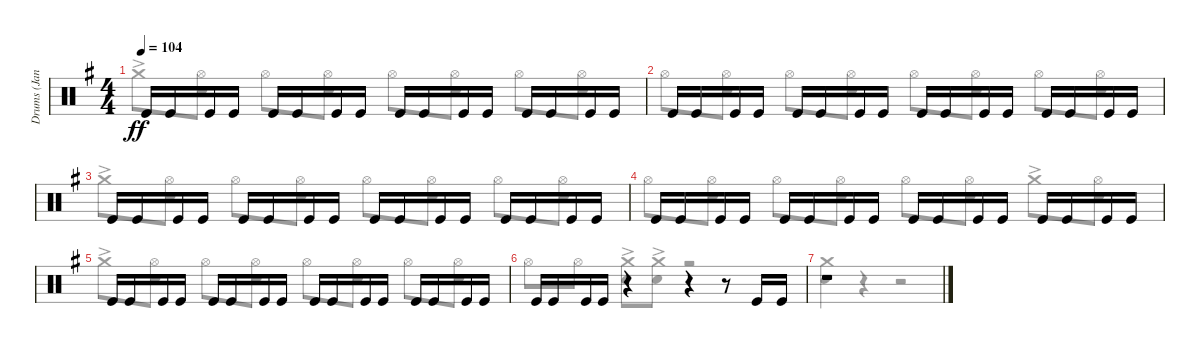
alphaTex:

\track ("Drums (Jane)" "Drums (Jan") {instrument percussion}
\staff {score}
\articulation defaults
\voice
\ts (4 4)
\tempo 104
\clef neutral
\ks eminor "Kick (hit)".16{dy ff} "Kick (hit)".16 "Kick (hit)".16 "Kick (hit)".16 "Kick (hit)".16 "Kick (hit)".16 "Kick (hit)".16 "Kick (hit)".16 "Kick (hit)".16 "Kick (hit)".16 "Kick (hit)".16 "Kick (hit)".16 "Kick (hit)".16 "Kick (hit)".16 "Kick (hit)".16 "Kick (hit)".16
|
"Kick (hit)".16 "Kick (hit)".16 "Kick (hit)".16 "Kick (hit)".16 "Kick (hit)".16 "Kick (hit)".16 "Kick (hit)".16 "Kick (hit)".16 "Kick (hit)".16 "Kick (hit)".16 "Kick (hit)".16 "Kick (hit)".16 "Kick (hit)".16 "Kick (hit)".16 "Kick (hit)".16 "Kick (hit)".16 |
"Kick (hit)".16 "Kick (hit)".16 "Kick (hit)".16 "Kick (hit)".16 "Kick (hit)".16 "Kick (hit)".16 "Kick (hit)".16 "Kick (hit)".16 "Kick (hit)".16 "Kick (hit)".16 "Kick (hit)".16 "Kick (hit)".16 "Kick (hit)".16 "Kick (hit)".16 "Kick (hit)".16 "Kick (hit)".16 |
"Kick (hit)".16 "Kick (hit)".16 "Kick (hit)".16 "Kick (hit)".16 "Kick (hit)".16 "Kick (hit)".16 "Kick (hit)".16 "Kick (hit)".16 "Kick (hit)".16 "Kick (hit)".16 "Kick (hit)".16 "Kick (hit)".16 "Kick (hit)".16 "Kick (hit)".16 "Kick (hit)".16 "Kick (hit)".16 |
"Kick (hit)".16 "Kick (hit)".16 "Kick (hit)".16 "Kick (hit)".16 "Kick (hit)".16 "Kick (hit)".16 "Kick (hit)".16 "Kick (hit)".16 "Kick (hit)".16 "Kick (hit)".16 "Kick (hit)".16 "Kick (hit)".16 "Kick (hit)".16 "Kick (hit)".16 "Kick (hit)".16 "Kick (hit)".16 |
"Kick (hit)".16 "Kick (hit)".16 "Kick (hit)".16 "Kick (hit)".16 r.4 r.4 r.8 "Kick (hit)".16 "Kick (hit)".16 |
r.1
\voice
\clef neutral
\ottava regular
\simile none
\ks eminor "Crash medium (hit)"{ac}.8{dy ff}
("Hi-Hat (open)" "Snare (hit) 2").8 "Hi-Hat (open)".8 ("Hi-Hat (open)" "Snare (hit) 2").8 "Hi-Hat (open)".8 ("Hi-Hat (open)" "Snare (hit) 2").8 "Hi-Hat (open)".8 ("Hi-Hat (open)" "Snare (hit) 2").8 |
"Hi-Hat (open)".8 ("Hi-Hat (open)" "Snare (hit) 2").8 "Hi-Hat (open)".8 ("Hi-Hat (open)" "Snare (hit) 2").8 "Hi-Hat (open)".8 ("Hi-Hat (open)" "Snare (hit) 2").8 "Hi-Hat (open)".8 ("Hi-Hat (open)" "Snare (hit) 2").8 |
"Crash medium (hit)"{ac}.8 ("Hi-Hat (open)" "Snare (hit) 2").8 "Hi-Hat (open)".8 ("Hi-Hat (open)" "Snare (hit) 2").8 "Hi-Hat (open)".8 ("Hi-Hat (open)" "Snare (hit) 2").8 "Hi-Hat (open)".8 ("Hi-Hat (open)" "Snare (hit) 2").8 |
"Hi-Hat (open)".8 ("Hi-Hat (open)" "Snare (hit) 2").8 "Hi-Hat (open)".8 ("Hi-Hat (open)" "Snare (hit) 2").8 "Hi-Hat (open)".8 ("Hi-Hat (open)" "Snare (hit) 2").8 "Crash medium (hit)"{ac}.8 ("Hi-Hat (open)" "Snare (hit) 2").8 |
"Crash medium (hit)"{ac}.8 ("Hi-Hat (open)" "Snare (hit) 2").8 "Hi-Hat (open)".8 ("Hi-Hat (open)" "Snare (hit) 2").8 "Hi-Hat (open)".8 ("Hi-Hat (open)" "Snare (hit) 2").8 "Hi-Hat (open)".8 ("Hi-Hat (open)" "Snare (hit) 2").8 |
"Hi-Hat (open)".8 "Hi-Hat (open)".8 ("Crash medium (hit)"{ac} "Snare (hit) 2").8 ("Crash medium (hit)"{ac} "Snare (hit) 2").8 r.2 |
("Crash medium (hit)" "Snare (hit) 2").4 r.4 r.2
